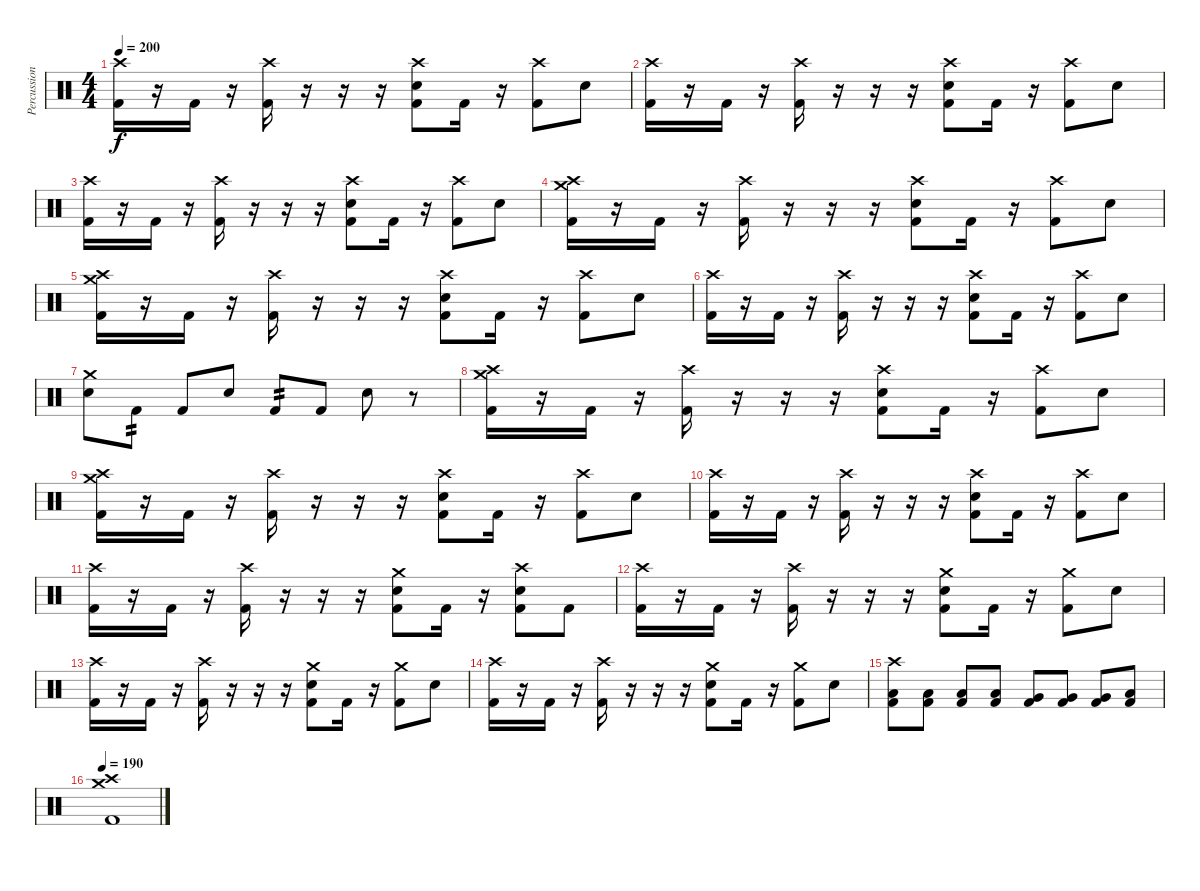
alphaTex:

\track ("Percussion" "Percussion") {instrument percussion}
\staff {score}
\articulation defaults
\ts (4 4)
\tempo 200
\clef neutral
\ks c
("Crash high (hit)" "Kick (hit) 2").16{dy f} r.16 "Kick (hit) 2".16 r.16 ("Crash high (hit)" "Kick (hit) 2").16 r.16 r.16 r.16 ("Crash high (hit)" "Electric Snare (hit)" "Kick (hit) 2").8 "Kick (hit) 2".16 r.16 ("Crash high (hit)" "Kick (hit) 2").8 "Electric Snare (hit)".8 |
("Crash high (hit)" "Kick (hit) 2").16 r.16 "Kick (hit) 2".16 r.16 ("Crash high (hit)" "Kick (hit) 2").16 r.16 r.16 r.16 ("Crash high (hit)" "Electric Snare (hit)" "Kick (hit) 2").8 "Kick (hit) 2".16 r.16 ("Crash high (hit)" "Kick (hit) 2").8 "Electric Snare (hit)".8 |
("Crash high (hit)" "Kick (hit) 2").16 r.16 "Kick (hit) 2".16 r.16 ("Crash high (hit)" "Kick (hit) 2").16 r.16 r.16 r.16 ("Crash high (hit)" "Electric Snare (hit)" "Kick (hit) 2").8 "Kick (hit) 2".16 r.16 ("Crash high (hit)" "Kick (hit) 2").8 "Electric Snare (hit)".8 |
("Crash medium (hit)" "Crash high (hit)" "Kick (hit) 2").16 r.16 "Kick (hit) 2".16 r.16 ("Crash high (hit)" "Kick (hit) 2").16 r.16 r.16 r.16 ("Crash high (hit)" "Electric Snare (hit)" "Kick (hit) 2").8 "Kick (hit) 2".16 r.16 ("Crash high (hit)" "Kick (hit) 2").8 "Electric Snare (hit)".8 |
("Crash medium (hit)" "Crash high (hit)" "Kick (hit) 2").16 r.16 "Kick (hit) 2".16 r.16 ("Crash high (hit)" "Kick (hit) 2").16 r.16 r.16 r.16 ("Crash high (hit)" "Electric Snare (hit)" "Kick (hit) 2").8 "Kick (hit) 2".16 r.16 ("Crash high (hit)" "Kick (hit) 2").8 "Electric Snare (hit)".8 |
("Crash high (hit)" "Kick (hit) 2").16 r.16 "Kick (hit) 2".16 r.16 ("Crash high (hit)" "Kick (hit) 2").16 r.16 r.16 r.16 ("Crash high (hit)" "Electric Snare (hit)" "Kick (hit) 2").8 "Kick (hit) 2".16 r.16 ("Crash high (hit)" "Kick (hit) 2").8 "Electric Snare (hit)".8 |
("Crash medium (hit)" "Electric Snare (hit)").8 "Kick (hit) 2".8{tp 2} "Kick (hit) 2".8 "Electric Snare (hit)".8 "Kick (hit) 2".8{tp 2} "Kick (hit) 2".8 "Electric Snare (hit)".8 r.8 |
("Crash medium (hit)" "Crash high (hit)" "Kick (hit) 2").16 r.16 "Kick (hit) 2".16 r.16 ("Crash high (hit)" "Kick (hit) 2").16 r.16 r.16 r.16 ("Crash high (hit)" "Electric Snare (hit)" "Kick (hit) 2").8 "Kick (hit) 2".16 r.16 ("Crash high (hit)" "Kick (hit) 2").8 "Electric Snare (hit)".8 |
("Crash medium (hit)" "Crash high (hit)" "Kick (hit) 2").16 r.16 "Kick (hit) 2".16 r.16 ("Crash high (hit)" "Kick (hit) 2").16 r.16 r.16 r.16 ("Crash high (hit)" "Electric Snare (hit)" "Kick (hit) 2").8 "Kick (hit) 2".16 r.16 ("Crash high (hit)" "Kick (hit) 2").8 "Electric Snare (hit)".8 |
("Crash high (hit)" "Kick (hit) 2").16 r.16 "Kick (hit) 2".16 r.16 ("Crash high (hit)" "Kick (hit) 2").16 r.16 r.16 r.16 ("Crash high (hit)" "Electric Snare (hit)" "Kick (hit) 2").8 "Kick (hit) 2".16 r.16 ("Crash high (hit)" "Kick (hit) 2").8 "Electric Snare (hit)".8 |
("Crash high (hit)" "Kick (hit) 2").16 r.16 "Kick (hit) 2".16 r.16 ("Crash high (hit)" "Kick (hit) 2").16 r.16 r.16 r.16 ("Crash medium (hit)" "Electric Snare (hit)" "Kick (hit) 2").8 "Kick (hit) 2".16 r.16 ("Crash high (hit)" "Electric Snare (hit)" "Kick (hit) 2").8 "Kick (hit) 2".8 |
("Crash high (hit)" "Kick (hit) 2").16 r.16 "Kick (hit) 2".16 r.16 ("Crash high (hit)" "Kick (hit) 2").16 r.16 r.16 r.16 ("Crash medium (hit)" "Electric Snare (hit)" "Kick (hit) 2").8 "Kick (hit) 2".16 r.16 ("Crash medium (hit)" "Kick (hit) 2").8 "Electric Snare (hit)".8 |
("Crash high (hit)" "Kick (hit) 2").16 r.16 "Kick (hit) 2".16 r.16 ("Crash high (hit)" "Kick (hit) 2").16 r.16 r.16 r.16 ("Crash medium (hit)" "Electric Snare (hit)" "Kick (hit) 2").8 "Kick (hit) 2".16 r.16 ("Crash medium (hit)" "Kick (hit) 2").8 "Electric Snare (hit)".8 |
("Crash high (hit)" "Kick (hit) 2").16 r.16 "Kick (hit) 2".16 r.16 ("Crash high (hit)" "Kick (hit) 2").16 r.16 r.16 r.16 ("Crash medium (hit)" "Electric Snare (hit)" "Kick (hit) 2").8 "Kick (hit) 2".16 r.16 ("Crash medium (hit)" "Kick (hit) 2").8 "Electric Snare (hit)".8 |
("Crash high (hit)" "Low Tom (hit)" "Kick (hit) 2").8 ("Low Tom (hit)" "Kick (hit) 2").8 ("Low Tom (hit)" "Kick (hit) 2").8 ("Low Tom (hit)" "Kick (hit) 2").8 ("Very Low Tom (hit)" "Kick (hit) 2").8 ("Very Low Tom (hit)" "Kick (hit) 2").8 ("Very Low Tom (hit)" "Kick (hit) 2").8 ("Low Floor Tom (hit)" "Kick (hit) 2").8 |
\tempo 190
("Crash medium (hit)" "Crash high (hit)" "Kick (hit) 2").1
